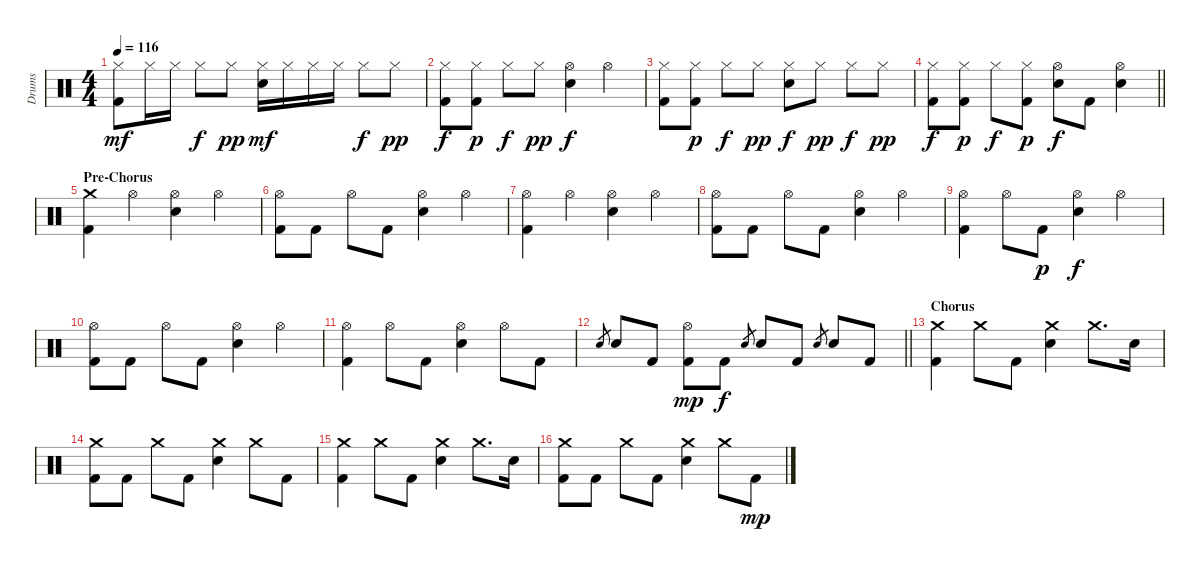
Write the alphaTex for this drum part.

\track ("Drums" "Drums") {instrument percussion}
\staff {score}
\articulation defaults
\ts (4 4)
\tempo 116
\clef neutral
\ks c
("Hi-Hat (closed)" "Kick (hit) 2").8{dy mf} "Hi-Hat (closed)".16 "Hi-Hat (closed)".16 "Hi-Hat (closed)".8{dy f} "Hi-Hat (closed)".8{dy pp} ("Hi-Hat (closed)" "Electric Snare (hit)").16{dy mf} "Hi-Hat (closed)".16 "Hi-Hat (closed)".16 "Hi-Hat (closed)".16 "Hi-Hat (closed)".8{dy f} "Hi-Hat (closed)".8{dy pp} |
("Hi-Hat (closed)" "Kick (hit) 2").8{dy f} ("Hi-Hat (closed)" "Kick (hit) 2").8{dy p} "Hi-Hat (closed)".8{dy f} "Hi-Hat (closed)".8{dy pp} ("Hi-Hat (open)" "Electric Snare (hit)").4{dy f} "Hi-Hat (open)".4 |
("Hi-Hat (closed)" "Kick (hit) 2").8 ("Hi-Hat (closed)" "Kick (hit) 2").8{dy p} "Hi-Hat (closed)".8{dy f} "Hi-Hat (closed)".8{dy pp} ("Hi-Hat (closed)" "Electric Snare (hit)").8{dy f} "Hi-Hat (closed)".8{dy pp} "Hi-Hat (closed)".8{dy f} "Hi-Hat (closed)".8{dy pp} |
\barLineRight lightlight
("Hi-Hat (closed)" "Kick (hit) 2").8{dy f} ("Hi-Hat (closed)" "Kick (hit) 2").8{dy p} "Hi-Hat (closed)".8{dy f} ("Hi-Hat (closed)" "Kick (hit) 2").8{dy p} ("Hi-Hat (open)" "Electric Snare (hit)").8{dy f} "Kick (hit) 2".8 ("Hi-Hat (open)" "Electric Snare (hit)").4 |
\section ("" "Pre-Chorus")
("Crash medium (hit)" "Kick (hit) 2").4 "Hi-Hat (open)".4 ("Hi-Hat (open)" "Electric Snare (hit)").4 "Hi-Hat (open)".4 |
("Hi-Hat (open)" "Kick (hit) 2").8 "Kick (hit) 2".8 "Hi-Hat (open)".8 "Kick (hit) 2".8 ("Hi-Hat (open)" "Electric Snare (hit)").4 "Hi-Hat (open)".4 |
("Hi-Hat (open)" "Kick (hit) 2").4 "Hi-Hat (open)".4 ("Hi-Hat (open)" "Electric Snare (hit)").4 "Hi-Hat (open)".4 |
("Hi-Hat (open)" "Kick (hit) 2").8 "Kick (hit) 2".8 "Hi-Hat (open)".8 "Kick (hit) 2".8 ("Hi-Hat (open)" "Electric Snare (hit)").4 "Hi-Hat (open)".4 |
("Hi-Hat (open)" "Kick (hit) 2").4 "Hi-Hat (open)".8 "Kick (hit) 2".8{dy p} ("Hi-Hat (open)" "Electric Snare (hit)").4{dy f} "Hi-Hat (open)".4 |
("Hi-Hat (open)" "Kick (hit) 2").8 "Kick (hit) 2".8 "Hi-Hat (open)".8 "Kick (hit) 2".8 ("Hi-Hat (open)" "Electric Snare (hit)").4 "Hi-Hat (open)".4 |
("Hi-Hat (open)" "Kick (hit) 2").4 "Hi-Hat (open)".8 "Kick (hit) 2".8 ("Hi-Hat (open)" "Electric Snare (hit)").4 "Hi-Hat (open)".8 "Kick (hit) 2".8 |
\barLineRight lightlight "Electric Snare (hit)".8{gr} "Electric Snare (hit)".8 "Kick (hit) 2".8
("Hi-Hat (open)" "Kick (hit) 2").8{dy mp} "Kick (hit) 2".8{dy f} "Electric Snare (hit)".8{gr} "Electric Snare (hit)".8 "Kick (hit) 2".8 "Electric Snare (hit)".8{gr} "Electric Snare (hit)".8 "Kick (hit) 2".8 |
\section ("" "Chorus")
("Crash medium (hit)" "Kick (hit) 2").4 "Crash medium (hit)".8 "Kick (hit) 2".8 ("Crash medium (hit)" "Electric Snare (hit)").4 "Crash medium (hit)".8{d} "Electric Snare (hit)".16 |
("Crash medium (hit)" "Kick (hit) 2").8 "Kick (hit) 2".8 "Crash medium (hit)".8 "Kick (hit) 2".8 ("Crash medium (hit)" "Electric Snare (hit)").4 "Crash medium (hit)".8 "Kick (hit) 2".8 |
("Crash medium (hit)" "Kick (hit) 2").4 "Crash medium (hit)".8 "Kick (hit) 2".8 ("Crash medium (hit)" "Electric Snare (hit)").4 "Crash medium (hit)".8{d} "Electric Snare (hit)".16 |
("Crash medium (hit)" "Kick (hit) 2").8 "Kick (hit) 2".8 "Crash medium (hit)".8 "Kick (hit) 2".8 ("Crash medium (hit)" "Electric Snare (hit)").4 "Crash medium (hit)".8 "Kick (hit) 2".8{dy mp}
